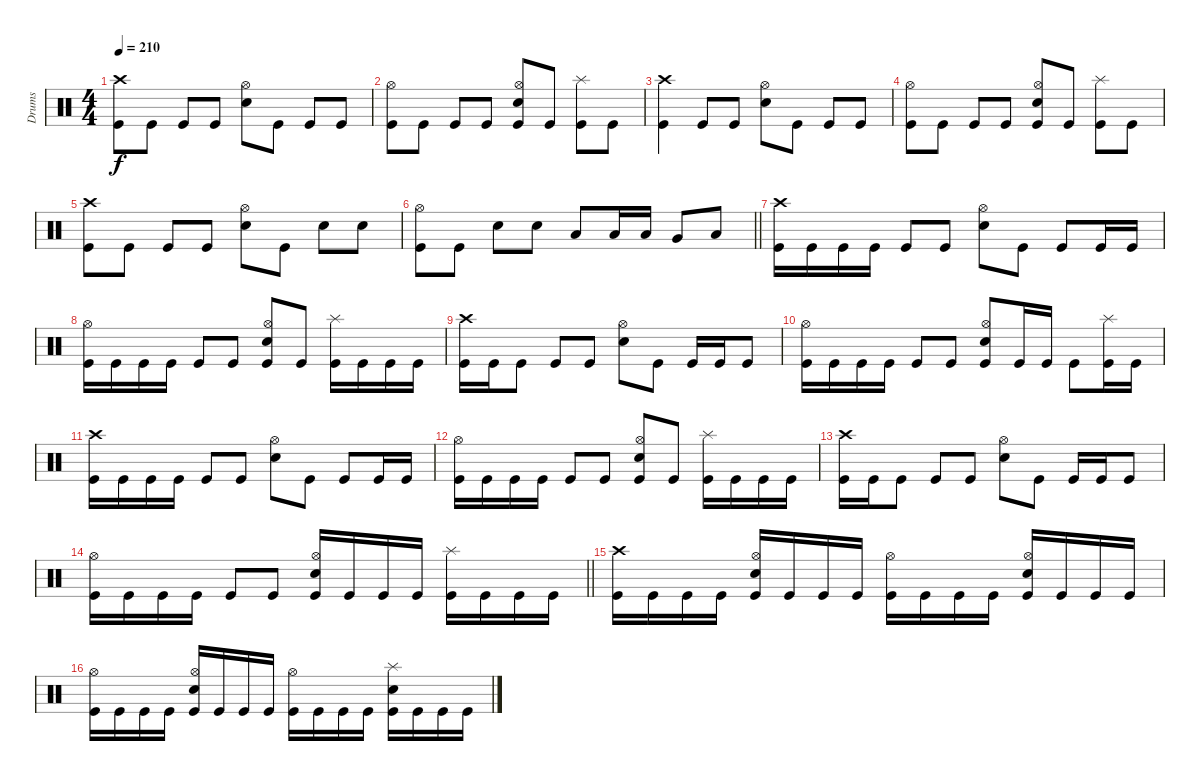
\track ("Drums" "Drums") {instrument percussion}
\staff {score}
\articulation defaults
\ts (4 4)
\tempo 210
\clef neutral
\ks c
("Crash high (hit)" "Kick (hit)").8{dy f} "Kick (hit)".8 "Kick (hit)".8 "Kick (hit)".8 ("Hi-Hat (open)" "Snare (hit) 2").8 "Kick (hit)".8 "Kick (hit)".8 "Kick (hit)".8 |
("Hi-Hat (open)" "Kick (hit)").8 "Kick (hit)".8 "Kick (hit)".8 "Kick (hit)".8 ("Hi-Hat (open)" "Snare (hit) 2" "Kick (hit)").8 "Kick (hit)".8 ("Splash (hit)" "Kick (hit)").8 "Kick (hit)".8 |
("Crash high (hit)" "Kick (hit)").4 "Kick (hit)".8 "Kick (hit)".8 ("Hi-Hat (open)" "Snare (hit) 2").8 "Kick (hit)".8 "Kick (hit)".8 "Kick (hit)".8 |
("Hi-Hat (open)" "Kick (hit)").8 "Kick (hit)".8 "Kick (hit)".8 "Kick (hit)".8 ("Hi-Hat (open)" "Snare (hit) 2" "Kick (hit)").8 "Kick (hit)".8 ("Splash (hit)" "Kick (hit)").8 "Kick (hit)".8 |
("Crash high (hit)" "Kick (hit)").8 "Kick (hit)".8 "Kick (hit)".8 "Kick (hit)".8 ("Hi-Hat (open)" "Snare (hit) 2").8 "Kick (hit)".8 "Snare (hit) 2".8 "Snare (hit) 2".8 |
\barLineRight lightlight
("Hi-Hat (open)" "Kick (hit)").8 "Kick (hit)".8 "Snare (hit) 2".8 "Snare (hit) 2".8 "Low Tom (hit)".8 "Low Tom (hit)".16 "Low Tom (hit)".16 "Very Low Tom (hit)".8 "Low Floor Tom (hit)".8 |
("Crash high (hit)" "Kick (hit)").16 "Kick (hit)".16 "Kick (hit)".16 "Kick (hit)".16 "Kick (hit)".8 "Kick (hit)".8 ("Hi-Hat (open)" "Snare (hit) 2").8 "Kick (hit)".8 "Kick (hit)".8 "Kick (hit)".16 "Kick (hit)".16 |
("Hi-Hat (open)" "Kick (hit)").16 "Kick (hit)".16 "Kick (hit)".16 "Kick (hit)".16 "Kick (hit)".8 "Kick (hit)".8 ("Hi-Hat (open)" "Snare (hit) 2" "Kick (hit)").8 "Kick (hit)".8 ("Splash (hit)" "Kick (hit)").16 "Kick (hit)".16 "Kick (hit)".16 "Kick (hit)".16 |
("Crash high (hit)" "Kick (hit)").16 "Kick (hit)".16 "Kick (hit)".8 "Kick (hit)".8 "Kick (hit)".8 ("Hi-Hat (open)" "Snare (hit) 2").8 "Kick (hit)".8 "Kick (hit)".16 "Kick (hit)".16 "Kick (hit)".8 |
("Hi-Hat (open)" "Kick (hit)").16 "Kick (hit)".16 "Kick (hit)".16 "Kick (hit)".16 "Kick (hit)".8 "Kick (hit)".8 ("Hi-Hat (open)" "Snare (hit) 2" "Kick (hit)").8 "Kick (hit)".16 "Kick (hit)".16 "Kick (hit)".8 ("Splash (hit)" "Kick (hit)").16 "Kick (hit)".16 |
("Crash high (hit)" "Kick (hit)").16 "Kick (hit)".16 "Kick (hit)".16 "Kick (hit)".16 "Kick (hit)".8 "Kick (hit)".8 ("Hi-Hat (open)" "Snare (hit) 2").8 "Kick (hit)".8 "Kick (hit)".8 "Kick (hit)".16 "Kick (hit)".16 |
("Hi-Hat (open)" "Kick (hit)").16 "Kick (hit)".16 "Kick (hit)".16 "Kick (hit)".16 "Kick (hit)".8 "Kick (hit)".8 ("Hi-Hat (open)" "Snare (hit) 2" "Kick (hit)").8 "Kick (hit)".8 ("Splash (hit)" "Kick (hit)").16 "Kick (hit)".16 "Kick (hit)".16 "Kick (hit)".16 |
("Crash high (hit)" "Kick (hit)").16 "Kick (hit)".16 "Kick (hit)".8 "Kick (hit)".8 "Kick (hit)".8 ("Hi-Hat (open)" "Snare (hit) 2").8 "Kick (hit)".8 "Kick (hit)".16 "Kick (hit)".16 "Kick (hit)".8 |
\barLineRight lightlight
("Hi-Hat (open)" "Kick (hit)").16 "Kick (hit)".16 "Kick (hit)".16 "Kick (hit)".16 "Kick (hit)".8 "Kick (hit)".8 ("Hi-Hat (open)" "Snare (hit) 2" "Kick (hit)").16 "Kick (hit)".16 "Kick (hit)".16 "Kick (hit)".16 ("Splash (hit)" "Kick (hit)").16 "Kick (hit)".16 "Kick (hit)".16 "Kick (hit)".16 |
("Crash high (hit)" "Kick (hit)").16 "Kick (hit)".16 "Kick (hit)".16 "Kick (hit)".16 ("Hi-Hat (open)" "Snare (hit) 2" "Kick (hit)").16 "Kick (hit)".16 "Kick (hit)".16 "Kick (hit)".16 ("Hi-Hat (open)" "Kick (hit)").16 "Kick (hit)".16 "Kick (hit)".16 "Kick (hit)".16 ("Hi-Hat (open)" "Snare (hit) 2" "Kick (hit)").16 "Kick (hit)".16 "Kick (hit)".16 "Kick (hit)".16 |
("Hi-Hat (open)" "Kick (hit)").16 "Kick (hit)".16 "Kick (hit)".16 "Kick (hit)".16 ("Hi-Hat (open)" "Snare (hit) 2" "Kick (hit)").16 "Kick (hit)".16 "Kick (hit)".16 "Kick (hit)".16 ("Hi-Hat (open)" "Kick (hit)").16 "Kick (hit)".16 "Kick (hit)".16 "Kick (hit)".16 ("Splash (hit)" "Snare (hit) 2" "Kick (hit)").16 "Kick (hit)".16 "Kick (hit)".16 "Kick (hit)".16
